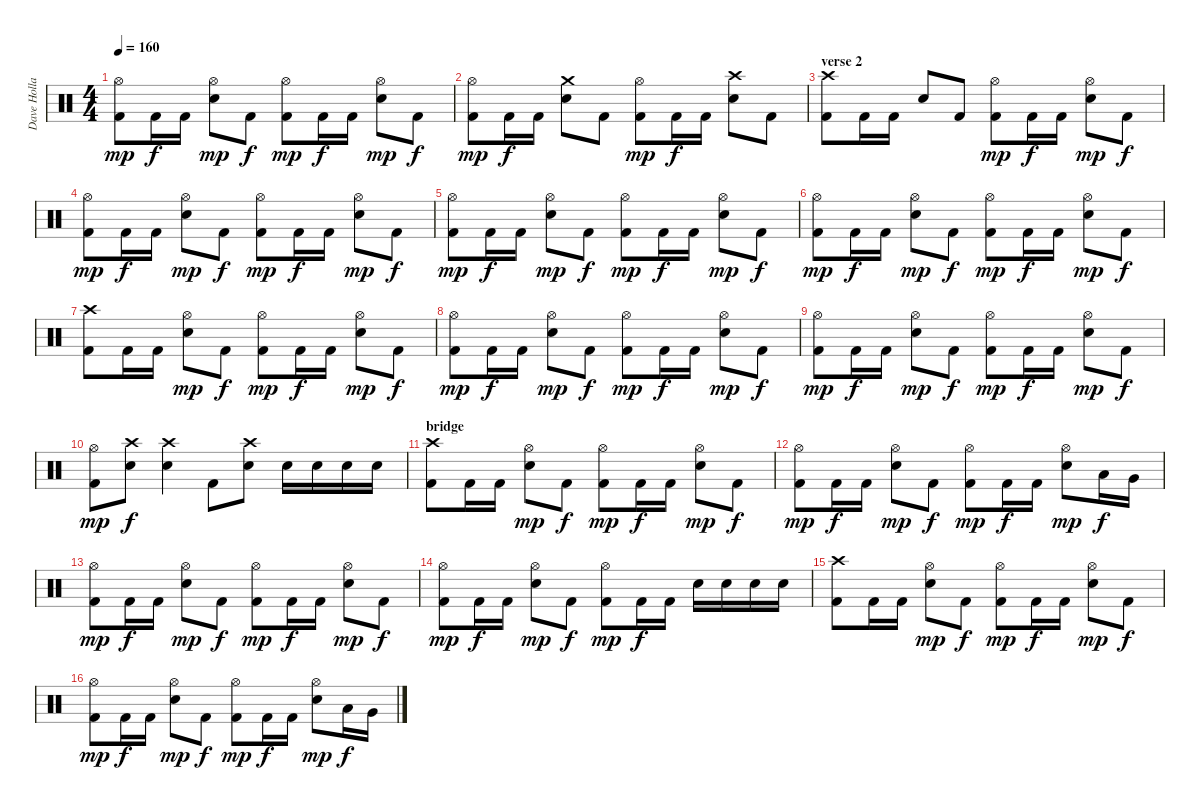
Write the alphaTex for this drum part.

\track ("Dave Holland" "Dave Holla") {instrument percussion}
\staff {score}
\articulation defaults
\ts (4 4)
\tempo 160
\clef neutral
\ks c
("Kick (hit) 2" "Hi-Hat (open)").8{dy mp} "Kick (hit) 2".16{dy f} "Kick (hit) 2".16 ("Hi-Hat (open)" "Snare (hit) 2").8{dy mp} "Kick (hit) 2".8{dy f} ("Kick (hit) 2" "Hi-Hat (open)").8{dy mp} "Kick (hit) 2".16{dy f} "Kick (hit) 2".16 ("Hi-Hat (open)" "Snare (hit) 2").8{dy mp} "Kick (hit) 2".8{dy f} |
("Kick (hit) 2" "Hi-Hat (open)").8{dy mp} "Kick (hit) 2".16{dy f} "Kick (hit) 2".16 ("Crash medium (hit)" "Snare (hit) 2").8 "Kick (hit) 2".8 ("Kick (hit) 2" "Hi-Hat (open)").8{dy mp} "Kick (hit) 2".16{dy f} "Kick (hit) 2".16 ("Crash high (hit)" "Snare (hit) 2").8 "Kick (hit) 2".8 |
\section ("" "verse 2")
("Kick (hit) 2" "Crash high (hit)").8 "Kick (hit) 2".16 "Kick (hit) 2".16 "Snare (hit) 2".8 "Kick (hit) 2".8 ("Kick (hit) 2" "Hi-Hat (open)").8{dy mp} "Kick (hit) 2".16{dy f} "Kick (hit) 2".16 ("Hi-Hat (open)" "Snare (hit) 2").8{dy mp} "Kick (hit) 2".8{dy f} |
("Kick (hit) 2" "Hi-Hat (open)").8{dy mp} "Kick (hit) 2".16{dy f} "Kick (hit) 2".16 ("Hi-Hat (open)" "Snare (hit) 2").8{dy mp} "Kick (hit) 2".8{dy f} ("Kick (hit) 2" "Hi-Hat (open)").8{dy mp} "Kick (hit) 2".16{dy f} "Kick (hit) 2".16 ("Hi-Hat (open)" "Snare (hit) 2").8{dy mp} "Kick (hit) 2".8{dy f} |
("Kick (hit) 2" "Hi-Hat (open)").8{dy mp} "Kick (hit) 2".16{dy f} "Kick (hit) 2".16 ("Hi-Hat (open)" "Snare (hit) 2").8{dy mp} "Kick (hit) 2".8{dy f} ("Kick (hit) 2" "Hi-Hat (open)").8{dy mp} "Kick (hit) 2".16{dy f} "Kick (hit) 2".16 ("Hi-Hat (open)" "Snare (hit) 2").8{dy mp} "Kick (hit) 2".8{dy f} |
("Kick (hit) 2" "Hi-Hat (open)").8{dy mp} "Kick (hit) 2".16{dy f} "Kick (hit) 2".16 ("Hi-Hat (open)" "Snare (hit) 2").8{dy mp} "Kick (hit) 2".8{dy f} ("Kick (hit) 2" "Hi-Hat (open)").8{dy mp} "Kick (hit) 2".16{dy f} "Kick (hit) 2".16 ("Hi-Hat (open)" "Snare (hit) 2").8{dy mp} "Kick (hit) 2".8{dy f} |
("Kick (hit) 2" "Crash high (hit)").8 "Kick (hit) 2".16 "Kick (hit) 2".16 ("Hi-Hat (open)" "Snare (hit) 2").8{dy mp} "Kick (hit) 2".8{dy f} ("Kick (hit) 2" "Hi-Hat (open)").8{dy mp} "Kick (hit) 2".16{dy f} "Kick (hit) 2".16 ("Hi-Hat (open)" "Snare (hit) 2").8{dy mp} "Kick (hit) 2".8{dy f} |
("Kick (hit) 2" "Hi-Hat (open)").8{dy mp} "Kick (hit) 2".16{dy f} "Kick (hit) 2".16 ("Hi-Hat (open)" "Snare (hit) 2").8{dy mp} "Kick (hit) 2".8{dy f} ("Kick (hit) 2" "Hi-Hat (open)").8{dy mp} "Kick (hit) 2".16{dy f} "Kick (hit) 2".16 ("Hi-Hat (open)" "Snare (hit) 2").8{dy mp} "Kick (hit) 2".8{dy f} |
("Kick (hit) 2" "Hi-Hat (open)").8{dy mp} "Kick (hit) 2".16{dy f} "Kick (hit) 2".16 ("Hi-Hat (open)" "Snare (hit) 2").8{dy mp} "Kick (hit) 2".8{dy f} ("Kick (hit) 2" "Hi-Hat (open)").8{dy mp} "Kick (hit) 2".16{dy f} "Kick (hit) 2".16 ("Hi-Hat (open)" "Snare (hit) 2").8{dy mp} "Kick (hit) 2".8{dy f} |
("Kick (hit) 2" "Hi-Hat (open)").8{dy mp} ("Crash high (hit)" "Snare (hit) 2").8{dy f} ("Crash high (hit)" "Snare (hit) 2").4 "Kick (hit) 2".8 ("Crash high (hit)" "Snare (hit) 2").8 "Snare (hit) 2".16 "Snare (hit) 2".16 "Snare (hit) 2".16 "Snare (hit) 2".16 |
\section ("" "bridge")
("Kick (hit) 2" "Crash high (hit)").8 "Kick (hit) 2".16 "Kick (hit) 2".16 ("Hi-Hat (open)" "Snare (hit) 2").8{dy mp} "Kick (hit) 2".8{dy f} ("Kick (hit) 2" "Hi-Hat (open)").8{dy mp} "Kick (hit) 2".16{dy f} "Kick (hit) 2".16 ("Hi-Hat (open)" "Snare (hit) 2").8{dy mp} "Kick (hit) 2".8{dy f} |
("Kick (hit) 2" "Hi-Hat (open)").8{dy mp} "Kick (hit) 2".16{dy f} "Kick (hit) 2".16 ("Hi-Hat (open)" "Snare (hit) 2").8{dy mp} "Kick (hit) 2".8{dy f} ("Kick (hit) 2" "Hi-Hat (open)").8{dy mp} "Kick (hit) 2".16{dy f} "Kick (hit) 2".16 ("Hi-Hat (open)" "Snare (hit) 2").8{dy mp} "Low Tom (hit)".16{dy f} "Very Low Tom (hit)".16 |
("Kick (hit) 2" "Hi-Hat (open)").8{dy mp} "Kick (hit) 2".16{dy f} "Kick (hit) 2".16 ("Hi-Hat (open)" "Snare (hit) 2").8{dy mp} "Kick (hit) 2".8{dy f} ("Kick (hit) 2" "Hi-Hat (open)").8{dy mp} "Kick (hit) 2".16{dy f} "Kick (hit) 2".16 ("Hi-Hat (open)" "Snare (hit) 2").8{dy mp} "Kick (hit) 2".8{dy f} |
("Kick (hit) 2" "Hi-Hat (open)").8{dy mp} "Kick (hit) 2".16{dy f} "Kick (hit) 2".16 ("Hi-Hat (open)" "Snare (hit) 2").8{dy mp} "Kick (hit) 2".8{dy f} ("Kick (hit) 2" "Hi-Hat (open)").8{dy mp} "Kick (hit) 2".16{dy f} "Kick (hit) 2".16 "Snare (hit) 2".16 "Snare (hit) 2".16 "Snare (hit) 2".16 "Snare (hit) 2".16 |
("Kick (hit) 2" "Crash high (hit)").8 "Kick (hit) 2".16 "Kick (hit) 2".16 ("Hi-Hat (open)" "Snare (hit) 2").8{dy mp} "Kick (hit) 2".8{dy f} ("Kick (hit) 2" "Hi-Hat (open)").8{dy mp} "Kick (hit) 2".16{dy f} "Kick (hit) 2".16 ("Hi-Hat (open)" "Snare (hit) 2").8{dy mp} "Kick (hit) 2".8{dy f} |
("Kick (hit) 2" "Hi-Hat (open)").8{dy mp} "Kick (hit) 2".16{dy f} "Kick (hit) 2".16 ("Hi-Hat (open)" "Snare (hit) 2").8{dy mp} "Kick (hit) 2".8{dy f} ("Kick (hit) 2" "Hi-Hat (open)").8{dy mp} "Kick (hit) 2".16{dy f} "Kick (hit) 2".16 ("Hi-Hat (open)" "Snare (hit) 2").8{dy mp} "Low Tom (hit)".16{dy f} "Very Low Tom (hit)".16
